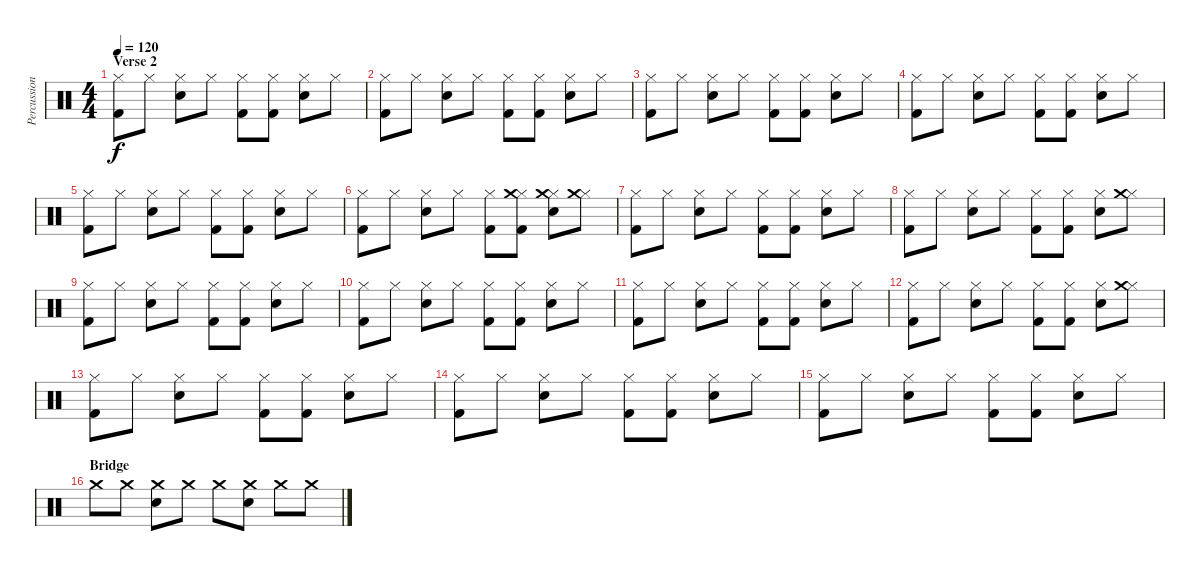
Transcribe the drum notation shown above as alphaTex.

\track ("Percussion" "Percussion") {instrument percussion}
\staff {score}
\articulation defaults
\ts (4 4)
\section ("" "Verse 2")
\tempo 120
\clef neutral
\ks c
("Hi-Hat (closed)" "Kick (hit) 2").8{dy f} "Hi-Hat (closed)".8 ("Hi-Hat (closed)" "Snare (hit) 2").8 "Hi-Hat (closed)".8 ("Hi-Hat (closed)" "Kick (hit) 2").8 ("Hi-Hat (closed)" "Kick (hit) 2").8 ("Hi-Hat (closed)" "Snare (hit) 2").8 "Hi-Hat (closed)".8 |
("Hi-Hat (closed)" "Kick (hit) 2").8 "Hi-Hat (closed)".8 ("Hi-Hat (closed)" "Snare (hit) 2").8 "Hi-Hat (closed)".8 ("Hi-Hat (closed)" "Kick (hit) 2").8 ("Hi-Hat (closed)" "Kick (hit) 2").8 ("Hi-Hat (closed)" "Snare (hit) 2").8 "Hi-Hat (closed)".8 |
("Hi-Hat (closed)" "Kick (hit) 2").8 "Hi-Hat (closed)".8 ("Hi-Hat (closed)" "Snare (hit) 2").8 "Hi-Hat (closed)".8 ("Hi-Hat (closed)" "Kick (hit) 2").8 ("Hi-Hat (closed)" "Kick (hit) 2").8 ("Hi-Hat (closed)" "Snare (hit) 2").8 "Hi-Hat (closed)".8 |
("Hi-Hat (closed)" "Kick (hit) 2").8 "Hi-Hat (closed)".8 ("Hi-Hat (closed)" "Snare (hit) 2").8 "Hi-Hat (closed)".8 ("Hi-Hat (closed)" "Kick (hit) 2").8 ("Hi-Hat (closed)" "Kick (hit) 2").8 ("Hi-Hat (closed)" "Snare (hit) 2").8 "Hi-Hat (closed)".8 |
("Hi-Hat (closed)" "Kick (hit) 2").8 "Hi-Hat (closed)".8 ("Hi-Hat (closed)" "Snare (hit) 2").8 "Hi-Hat (closed)".8 ("Hi-Hat (closed)" "Kick (hit) 2").8 ("Hi-Hat (closed)" "Kick (hit) 2").8 ("Hi-Hat (closed)" "Snare (hit) 2").8 "Hi-Hat (closed)".8 |
("Hi-Hat (closed)" "Kick (hit) 2").8 "Hi-Hat (closed)".8 ("Hi-Hat (closed)" "Snare (hit) 2").8 "Hi-Hat (closed)".8 ("Hi-Hat (closed)" "Kick (hit) 2").8 ("Hi-Hat (closed)" "Kick (hit) 2" "Crash medium (hit)").8 ("Hi-Hat (closed)" "Snare (hit) 2" "Crash medium (hit)").8 ("Hi-Hat (closed)" "Crash medium (hit)").8 |
("Hi-Hat (closed)" "Kick (hit) 2").8 "Hi-Hat (closed)".8 ("Hi-Hat (closed)" "Snare (hit) 2").8 "Hi-Hat (closed)".8 ("Hi-Hat (closed)" "Kick (hit) 2").8 ("Hi-Hat (closed)" "Kick (hit) 2").8 ("Hi-Hat (closed)" "Snare (hit) 2").8 "Hi-Hat (closed)".8 |
("Hi-Hat (closed)" "Kick (hit) 2").8 "Hi-Hat (closed)".8 ("Hi-Hat (closed)" "Snare (hit) 2").8 "Hi-Hat (closed)".8 ("Hi-Hat (closed)" "Kick (hit) 2").8 ("Hi-Hat (closed)" "Kick (hit) 2").8 ("Hi-Hat (closed)" "Snare (hit) 2").8 ("Hi-Hat (closed)" "Crash medium (hit)").8 |
("Hi-Hat (closed)" "Kick (hit) 2").8 "Hi-Hat (closed)".8 ("Hi-Hat (closed)" "Snare (hit) 2").8 "Hi-Hat (closed)".8 ("Hi-Hat (closed)" "Kick (hit) 2").8 ("Hi-Hat (closed)" "Kick (hit) 2").8 ("Hi-Hat (closed)" "Snare (hit) 2").8 "Hi-Hat (closed)".8 |
("Hi-Hat (closed)" "Kick (hit) 2").8 "Hi-Hat (closed)".8 ("Hi-Hat (closed)" "Snare (hit) 2").8 "Hi-Hat (closed)".8 ("Hi-Hat (closed)" "Kick (hit) 2").8 ("Hi-Hat (closed)" "Kick (hit) 2").8 ("Hi-Hat (closed)" "Snare (hit) 2").8 "Hi-Hat (closed)".8 |
("Hi-Hat (closed)" "Kick (hit) 2").8 "Hi-Hat (closed)".8 ("Hi-Hat (closed)" "Snare (hit) 2").8 "Hi-Hat (closed)".8 ("Hi-Hat (closed)" "Kick (hit) 2").8 ("Hi-Hat (closed)" "Kick (hit) 2").8 ("Hi-Hat (closed)" "Snare (hit) 2").8 "Hi-Hat (closed)".8 |
("Hi-Hat (closed)" "Kick (hit) 2").8 "Hi-Hat (closed)".8 ("Hi-Hat (closed)" "Snare (hit) 2").8 "Hi-Hat (closed)".8 ("Hi-Hat (closed)" "Kick (hit) 2").8 ("Hi-Hat (closed)" "Kick (hit) 2").8 ("Hi-Hat (closed)" "Snare (hit) 2").8 ("Hi-Hat (closed)" "Crash medium (hit)").8 |
("Hi-Hat (closed)" "Kick (hit) 2").8 "Hi-Hat (closed)".8 ("Hi-Hat (closed)" "Snare (hit) 2").8 "Hi-Hat (closed)".8 ("Hi-Hat (closed)" "Kick (hit) 2").8 ("Hi-Hat (closed)" "Kick (hit) 2").8 ("Hi-Hat (closed)" "Snare (hit) 2").8 "Hi-Hat (closed)".8 |
("Hi-Hat (closed)" "Kick (hit) 2").8 "Hi-Hat (closed)".8 ("Hi-Hat (closed)" "Snare (hit) 2").8 "Hi-Hat (closed)".8 ("Hi-Hat (closed)" "Kick (hit) 2").8 ("Hi-Hat (closed)" "Kick (hit) 2").8 ("Hi-Hat (closed)" "Snare (hit) 2").8 "Hi-Hat (closed)".8 |
("Hi-Hat (closed)" "Kick (hit) 2").8 "Hi-Hat (closed)".8 ("Hi-Hat (closed)" "Snare (hit) 2").8 "Hi-Hat (closed)".8 ("Hi-Hat (closed)" "Kick (hit) 2").8 ("Hi-Hat (closed)" "Kick (hit) 2").8 ("Hi-Hat (closed)" "Snare (hit) 2").8 "Hi-Hat (closed)".8 |
\section ("" "Bridge")
"Crash medium (hit)".8 "Crash medium (hit)".8 ("Crash medium (hit)" "Snare (hit) 2").8 "Crash medium (hit)".8 "Crash medium (hit)".8 ("Crash medium (hit)" "Snare (hit) 2").8 "Crash medium (hit)".8 "Crash medium (hit)".8
